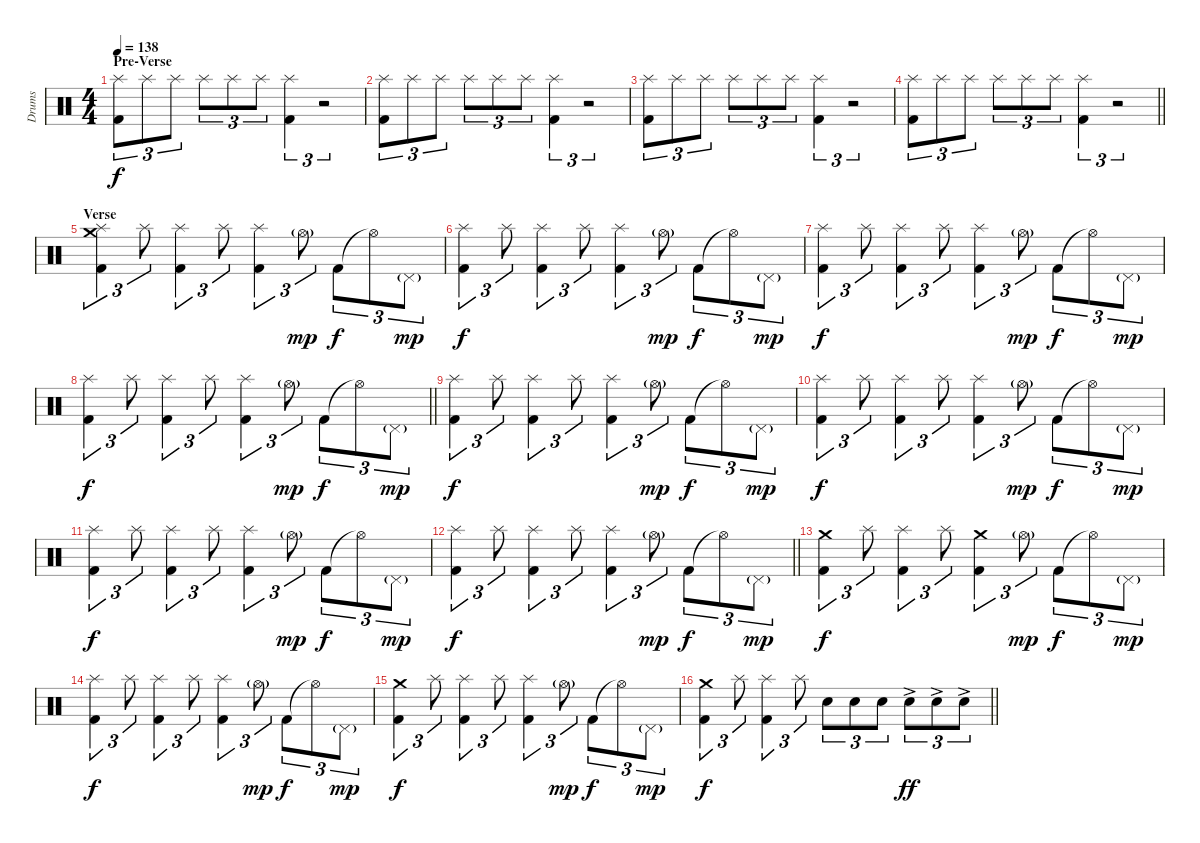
\track ("Drums" "Drums") {instrument percussion}
\staff {score}
\articulation defaults
\ts (4 4)
\section ("" "Pre-Verse")
\tempo 138
\clef neutral
\ks c
("Kick (hit) 2" "Splash (hit)").8{tu (3 2) dy f} "Splash (hit)".8{tu (3 2)} "Splash (hit)".8{tu (3 2)} "Splash (hit)".8{tu (3 2)} "Splash (hit)".8{tu (3 2)} "Splash (hit)".8{tu (3 2)} ("Kick (hit) 2" "Splash (hit)").4{tu (3 2)} r.2{tu (3 2)} |
("Kick (hit) 2" "Splash (hit)").8{tu (3 2)} "Splash (hit)".8{tu (3 2)} "Splash (hit)".8{tu (3 2)} "Splash (hit)".8{tu (3 2)} "Splash (hit)".8{tu (3 2)} "Splash (hit)".8{tu (3 2)} ("Kick (hit) 2" "Splash (hit)").4{tu (3 2)} r.2{tu (3 2)} |
("Kick (hit) 2" "Splash (hit)").8{tu (3 2)} "Splash (hit)".8{tu (3 2)} "Splash (hit)".8{tu (3 2)} "Splash (hit)".8{tu (3 2)} "Splash (hit)".8{tu (3 2)} "Splash (hit)".8{tu (3 2)} ("Kick (hit) 2" "Splash (hit)").4{tu (3 2)} r.2{tu (3 2)} |
\barLineRight lightlight
("Kick (hit) 2" "Splash (hit)").8{tu (3 2)} "Splash (hit)".8{tu (3 2)} "Splash (hit)".8{tu (3 2)} "Splash (hit)".8{tu (3 2)} "Splash (hit)".8{tu (3 2)} "Splash (hit)".8{tu (3 2)} ("Kick (hit) 2" "Splash (hit)").4{tu (3 2)} r.2{tu (3 2)} |
\section ("" "Verse")
("Kick (hit) 2" "Splash (hit)" "Crash medium (hit)").4{tu (3 2)} "Splash (hit)".8{tu (3 2)} ("Kick (hit) 2" "Splash (hit)").4{tu (3 2)} "Splash (hit)".8{tu (3 2)} ("Kick (hit) 2" "Splash (hit)").4{tu (3 2)} "Hi-Hat (open)"{g}.8{tu (3 2) dy mp} "Kick (hit) 2".8{tu (3 2) dy f} "Hi-Hat (open)"{t}.8{tu (3 2)} "Pedal Hi-Hat (hit)"{g}.8{tu (3 2) dy mp} |
("Kick (hit) 2" "Splash (hit)").4{tu (3 2) dy f} "Splash (hit)".8{tu (3 2)} ("Kick (hit) 2" "Splash (hit)").4{tu (3 2)} "Splash (hit)".8{tu (3 2)} ("Kick (hit) 2" "Splash (hit)").4{tu (3 2)} "Hi-Hat (open)"{g}.8{tu (3 2) dy mp} "Kick (hit) 2".8{tu (3 2) dy f} "Hi-Hat (open)"{t}.8{tu (3 2)} "Pedal Hi-Hat (hit)"{g}.8{tu (3 2) dy mp} |
("Kick (hit) 2" "Splash (hit)").4{tu (3 2) dy f} "Splash (hit)".8{tu (3 2)} ("Kick (hit) 2" "Splash (hit)").4{tu (3 2)} "Splash (hit)".8{tu (3 2)} ("Kick (hit) 2" "Splash (hit)").4{tu (3 2)} "Hi-Hat (open)"{g}.8{tu (3 2) dy mp} "Kick (hit) 2".8{tu (3 2) dy f} "Hi-Hat (open)"{t}.8{tu (3 2)} "Pedal Hi-Hat (hit)"{g}.8{tu (3 2) dy mp} |
\barLineRight lightlight
("Kick (hit) 2" "Splash (hit)").4{tu (3 2) dy f} "Splash (hit)".8{tu (3 2)} ("Kick (hit) 2" "Splash (hit)").4{tu (3 2)} "Splash (hit)".8{tu (3 2)} ("Kick (hit) 2" "Splash (hit)").4{tu (3 2)} "Hi-Hat (open)"{g}.8{tu (3 2) dy mp} "Kick (hit) 2".8{tu (3 2) dy f} "Hi-Hat (open)"{t}.8{tu (3 2)} "Pedal Hi-Hat (hit)"{g}.8{tu (3 2) dy mp} |
\section ("" "")
("Kick (hit) 2" "Splash (hit)").4{tu (3 2) dy f} "Splash (hit)".8{tu (3 2)} ("Kick (hit) 2" "Splash (hit)").4{tu (3 2)} "Splash (hit)".8{tu (3 2)} ("Kick (hit) 2" "Splash (hit)").4{tu (3 2)} "Hi-Hat (open)"{g}.8{tu (3 2) dy mp} "Kick (hit) 2".8{tu (3 2) dy f} "Hi-Hat (open)"{t}.8{tu (3 2)} "Pedal Hi-Hat (hit)"{g}.8{tu (3 2) dy mp} |
("Kick (hit) 2" "Splash (hit)").4{tu (3 2) dy f} "Splash (hit)".8{tu (3 2)} ("Kick (hit) 2" "Splash (hit)").4{tu (3 2)} "Splash (hit)".8{tu (3 2)} ("Kick (hit) 2" "Splash (hit)").4{tu (3 2)} "Hi-Hat (open)"{g}.8{tu (3 2) dy mp} "Kick (hit) 2".8{tu (3 2) dy f} "Hi-Hat (open)"{t}.8{tu (3 2)} "Pedal Hi-Hat (hit)"{g}.8{tu (3 2) dy mp} |
("Kick (hit) 2" "Splash (hit)").4{tu (3 2) dy f} "Splash (hit)".8{tu (3 2)} ("Kick (hit) 2" "Splash (hit)").4{tu (3 2)} "Splash (hit)".8{tu (3 2)} ("Kick (hit) 2" "Splash (hit)").4{tu (3 2)} "Hi-Hat (open)"{g}.8{tu (3 2) dy mp} "Kick (hit) 2".8{tu (3 2) dy f} "Hi-Hat (open)"{t}.8{tu (3 2)} "Pedal Hi-Hat (hit)"{g}.8{tu (3 2) dy mp} |
\barLineRight lightlight
("Kick (hit) 2" "Splash (hit)").4{tu (3 2) dy f} "Splash (hit)".8{tu (3 2)} ("Kick (hit) 2" "Splash (hit)").4{tu (3 2)} "Splash (hit)".8{tu (3 2)} ("Kick (hit) 2" "Splash (hit)").4{tu (3 2)} "Hi-Hat (open)"{g}.8{tu (3 2) dy mp} "Kick (hit) 2".8{tu (3 2) dy f} "Hi-Hat (open)"{t}.8{tu (3 2)} "Pedal Hi-Hat (hit)"{g}.8{tu (3 2) dy mp} |
\section ("" "")
("Kick (hit) 2" "Crash medium (hit)").4{tu (3 2) dy f} "Splash (hit)".8{tu (3 2)} ("Kick (hit) 2" "Splash (hit)").4{tu (3 2)} "Splash (hit)".8{tu (3 2)} ("Kick (hit) 2" "Crash medium (hit)").4{tu (3 2)} "Hi-Hat (open)"{g}.8{tu (3 2) dy mp} "Kick (hit) 2".8{tu (3 2) dy f} "Hi-Hat (open)"{t}.8{tu (3 2)} "Pedal Hi-Hat (hit)"{g}.8{tu (3 2) dy mp} |
("Kick (hit) 2" "Splash (hit)").4{tu (3 2) dy f} "Splash (hit)".8{tu (3 2)} ("Kick (hit) 2" "Splash (hit)").4{tu (3 2)} "Splash (hit)".8{tu (3 2)} ("Kick (hit) 2" "Splash (hit)").4{tu (3 2)} "Hi-Hat (open)"{g}.8{tu (3 2) dy mp} "Kick (hit) 2".8{tu (3 2) dy f} "Hi-Hat (open)"{t}.8{tu (3 2)} "Pedal Hi-Hat (hit)"{g}.8{tu (3 2) dy mp} |
("Kick (hit) 2" "Crash medium (hit)").4{tu (3 2) dy f} "Splash (hit)".8{tu (3 2)} ("Kick (hit) 2" "Splash (hit)").4{tu (3 2)} "Splash (hit)".8{tu (3 2)} ("Kick (hit) 2" "Splash (hit)").4{tu (3 2)} "Hi-Hat (open)"{g}.8{tu (3 2) dy mp} "Kick (hit) 2".8{tu (3 2) dy f} "Hi-Hat (open)"{t}.8{tu (3 2)} "Pedal Hi-Hat (hit)"{g}.8{tu (3 2) dy mp} |
\barLineRight lightlight
("Kick (hit) 2" "Crash medium (hit)").4{tu (3 2) dy f} "Splash (hit)".8{tu (3 2)} ("Kick (hit) 2" "Splash (hit)").4{tu (3 2)} "Splash (hit)".8{tu (3 2)} "Snare (hit) 2".8{tu (3 2)} "Snare (hit) 2".8{tu (3 2)} "Snare (hit) 2".8{tu (3 2)} "Snare (hit) 2"{ac}.8{tu (3 2) dy ff} "Snare (hit) 2"{ac}.8{tu (3 2)} "Snare (hit) 2"{ac}.8{tu (3 2)}
